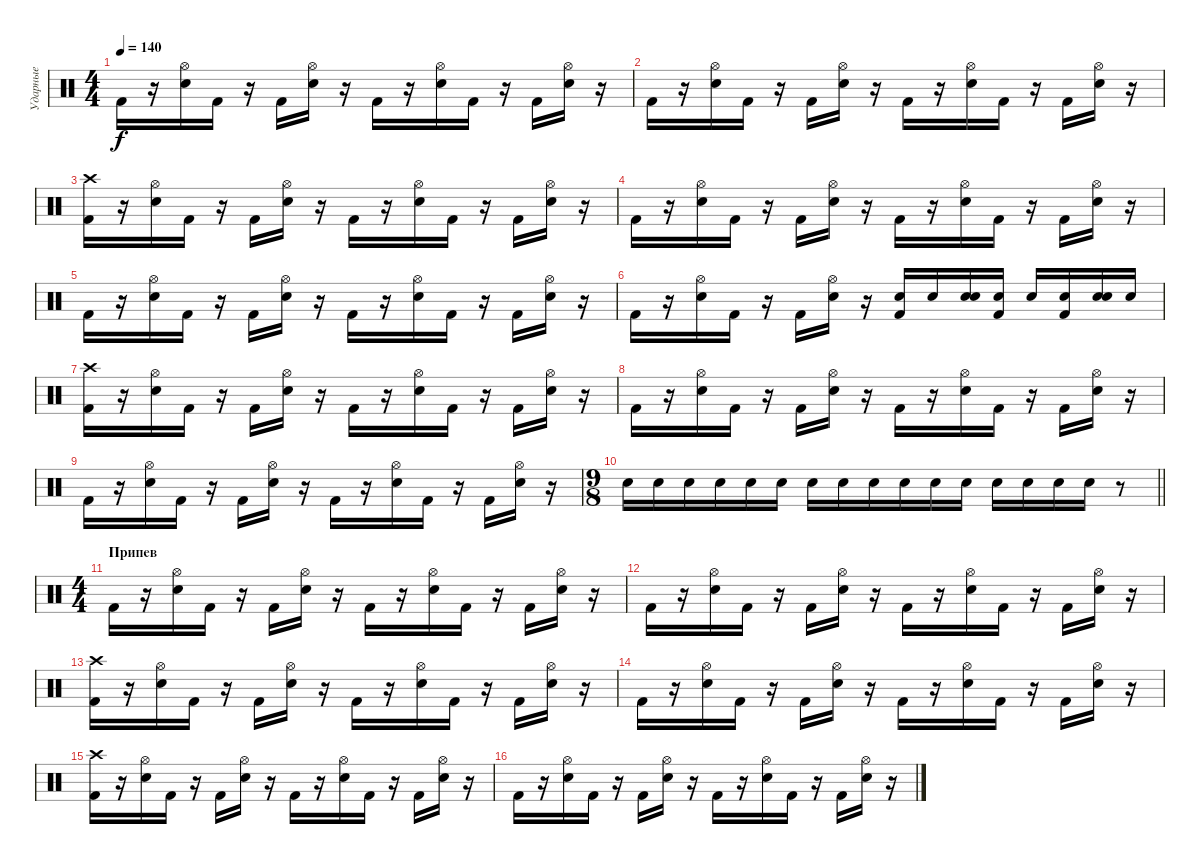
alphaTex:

\track ("Ударные" "Ударные") {instrument percussion}
\staff {score}
\articulation defaults
\ts (4 4)
\tempo 140
\clef neutral
\ks c "Kick (hit) 2".16{dy f}
r.16 ("Electric Snare (hit)" "Hi-Hat (open)").16 "Kick (hit) 2".16 r.16 "Kick (hit) 2".16 ("Electric Snare (hit)" "Hi-Hat (open)").16 r.16 "Kick (hit) 2".16 r.16 ("Electric Snare (hit)" "Hi-Hat (open)").16 "Kick (hit) 2".16 r.16 "Kick (hit) 2".16 ("Electric Snare (hit)" "Hi-Hat (open)").16 r.16 |
"Kick (hit) 2".16 r.16 ("Electric Snare (hit)" "Hi-Hat (open)").16 "Kick (hit) 2".16 r.16 "Kick (hit) 2".16 ("Electric Snare (hit)" "Hi-Hat (open)").16 r.16 "Kick (hit) 2".16 r.16 ("Electric Snare (hit)" "Hi-Hat (open)").16 "Kick (hit) 2".16 r.16 "Kick (hit) 2".16 ("Electric Snare (hit)" "Hi-Hat (open)").16 r.16 |
("Kick (hit) 2" "Crash high (hit)").16 r.16 ("Electric Snare (hit)" "Hi-Hat (open)").16 "Kick (hit) 2".16 r.16 "Kick (hit) 2".16 ("Electric Snare (hit)" "Hi-Hat (open)").16 r.16 "Kick (hit) 2".16 r.16 ("Electric Snare (hit)" "Hi-Hat (open)").16 "Kick (hit) 2".16 r.16 "Kick (hit) 2".16 ("Electric Snare (hit)" "Hi-Hat (open)").16 r.16 |
"Kick (hit) 2".16 r.16 ("Electric Snare (hit)" "Hi-Hat (open)").16 "Kick (hit) 2".16 r.16 "Kick (hit) 2".16 ("Electric Snare (hit)" "Hi-Hat (open)").16 r.16 "Kick (hit) 2".16 r.16 ("Electric Snare (hit)" "Hi-Hat (open)").16 "Kick (hit) 2".16 r.16 "Kick (hit) 2".16 ("Electric Snare (hit)" "Hi-Hat (open)").16 r.16 |
"Kick (hit) 2".16 r.16 ("Electric Snare (hit)" "Hi-Hat (open)").16 "Kick (hit) 2".16 r.16 "Kick (hit) 2".16 ("Electric Snare (hit)" "Hi-Hat (open)").16 r.16 "Kick (hit) 2".16 r.16 ("Electric Snare (hit)" "Hi-Hat (open)").16 "Kick (hit) 2".16 r.16 "Kick (hit) 2".16 ("Electric Snare (hit)" "Hi-Hat (open)").16 r.16 |
"Kick (hit) 2".16 r.16 ("Electric Snare (hit)" "Hi-Hat (open)").16 "Kick (hit) 2".16 r.16 "Kick (hit) 2".16 ("Electric Snare (hit)" "Hi-Hat (open)").16 r.16 ("Kick (hit) 2" "Electric Snare (hit)").16 "Electric Snare (hit)".16 ("Electric Snare (hit)" "Electric Snare (hit)").16 ("Kick (hit) 2" "Electric Snare (hit)").16 "Electric Snare (hit)".16 ("Kick (hit) 2" "Electric Snare (hit)").16 ("Electric Snare (hit)" "Electric Snare (hit)").16 "Electric Snare (hit)".16 |
("Kick (hit) 2" "Crash high (hit)").16 r.16 ("Electric Snare (hit)" "Hi-Hat (open)").16 "Kick (hit) 2".16 r.16 "Kick (hit) 2".16 ("Electric Snare (hit)" "Hi-Hat (open)").16 r.16 "Kick (hit) 2".16 r.16 ("Electric Snare (hit)" "Hi-Hat (open)").16 "Kick (hit) 2".16 r.16 "Kick (hit) 2".16 ("Electric Snare (hit)" "Hi-Hat (open)").16 r.16 |
"Kick (hit) 2".16 r.16 ("Electric Snare (hit)" "Hi-Hat (open)").16 "Kick (hit) 2".16 r.16 "Kick (hit) 2".16 ("Electric Snare (hit)" "Hi-Hat (open)").16 r.16 "Kick (hit) 2".16 r.16 ("Electric Snare (hit)" "Hi-Hat (open)").16 "Kick (hit) 2".16 r.16 "Kick (hit) 2".16 ("Electric Snare (hit)" "Hi-Hat (open)").16 r.16 |
"Kick (hit) 2".16 r.16 ("Electric Snare (hit)" "Hi-Hat (open)").16 "Kick (hit) 2".16 r.16 "Kick (hit) 2".16 ("Electric Snare (hit)" "Hi-Hat (open)").16 r.16 "Kick (hit) 2".16 r.16 ("Electric Snare (hit)" "Hi-Hat (open)").16 "Kick (hit) 2".16 r.16 "Kick (hit) 2".16 ("Electric Snare (hit)" "Hi-Hat (open)").16 r.16 |
\ts (9 8)
\barLineRight lightlight "Electric Snare (hit)".16 "Electric Snare (hit)".16 "Electric Snare (hit)".16 "Electric Snare (hit)".16 "Electric Snare (hit)".16 "Electric Snare (hit)".16 "Electric Snare (hit)".16 "Electric Snare (hit)".16 "Electric Snare (hit)".16 "Electric Snare (hit)".16 "Electric Snare (hit)".16 "Electric Snare (hit)".16 "Electric Snare (hit)".16 "Electric Snare (hit)".16 "Electric Snare (hit)".16 "Electric Snare (hit)".16
r.8 |
\ts (4 4)
\section ("" "Припев")
"Kick (hit) 2".16 r.16 ("Electric Snare (hit)" "Hi-Hat (open)").16 "Kick (hit) 2".16 r.16 "Kick (hit) 2".16 ("Electric Snare (hit)" "Hi-Hat (open)").16 r.16 "Kick (hit) 2".16 r.16 ("Electric Snare (hit)" "Hi-Hat (open)").16 "Kick (hit) 2".16 r.16 "Kick (hit) 2".16 ("Electric Snare (hit)" "Hi-Hat (open)").16 r.16 |
"Kick (hit) 2".16 r.16 ("Electric Snare (hit)" "Hi-Hat (open)").16 "Kick (hit) 2".16 r.16 "Kick (hit) 2".16 ("Electric Snare (hit)" "Hi-Hat (open)").16 r.16 "Kick (hit) 2".16 r.16 ("Electric Snare (hit)" "Hi-Hat (open)").16 "Kick (hit) 2".16 r.16 "Kick (hit) 2".16 ("Electric Snare (hit)" "Hi-Hat (open)").16 r.16 |
("Kick (hit) 2" "Crash high (hit)").16 r.16 ("Electric Snare (hit)" "Hi-Hat (open)").16 "Kick (hit) 2".16 r.16 "Kick (hit) 2".16 ("Electric Snare (hit)" "Hi-Hat (open)").16 r.16 "Kick (hit) 2".16 r.16 ("Electric Snare (hit)" "Hi-Hat (open)").16 "Kick (hit) 2".16 r.16 "Kick (hit) 2".16 ("Electric Snare (hit)" "Hi-Hat (open)").16 r.16 |
"Kick (hit) 2".16 r.16 ("Electric Snare (hit)" "Hi-Hat (open)").16 "Kick (hit) 2".16 r.16 "Kick (hit) 2".16 ("Electric Snare (hit)" "Hi-Hat (open)").16 r.16 "Kick (hit) 2".16 r.16 ("Electric Snare (hit)" "Hi-Hat (open)").16 "Kick (hit) 2".16 r.16 "Kick (hit) 2".16 ("Electric Snare (hit)" "Hi-Hat (open)").16 r.16 |
("Kick (hit) 2" "Crash high (hit)").16 r.16 ("Electric Snare (hit)" "Hi-Hat (open)").16 "Kick (hit) 2".16 r.16 "Kick (hit) 2".16 ("Electric Snare (hit)" "Hi-Hat (open)").16 r.16 "Kick (hit) 2".16 r.16 ("Electric Snare (hit)" "Hi-Hat (open)").16 "Kick (hit) 2".16 r.16 "Kick (hit) 2".16 ("Electric Snare (hit)" "Hi-Hat (open)").16 r.16 |
"Kick (hit) 2".16 r.16 ("Electric Snare (hit)" "Hi-Hat (open)").16 "Kick (hit) 2".16 r.16 "Kick (hit) 2".16 ("Electric Snare (hit)" "Hi-Hat (open)").16 r.16 "Kick (hit) 2".16 r.16 ("Electric Snare (hit)" "Hi-Hat (open)").16 "Kick (hit) 2".16 r.16 "Kick (hit) 2".16 ("Electric Snare (hit)" "Hi-Hat (open)").16 r.16
